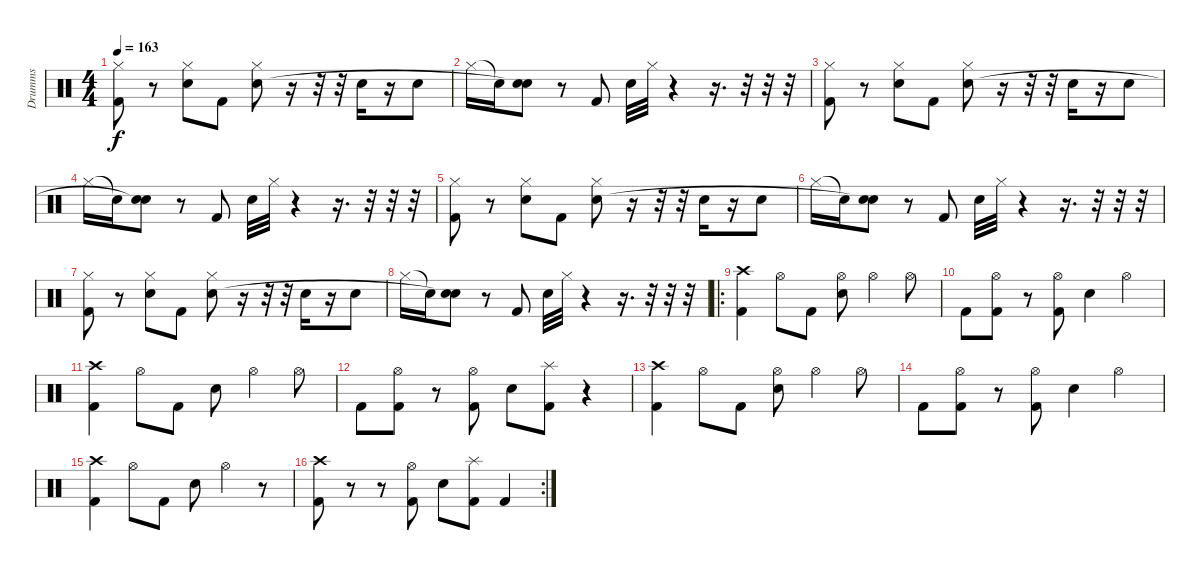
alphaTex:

\track ("Drumms" "Drumms") {instrument percussion}
\staff {score}
\articulation defaults
\ts (4 4)
\tempo 163
\clef neutral
\ks c
("Hi-Hat (closed)" "Kick (hit) 2").8{dy f} r.8 ("Hi-Hat (closed)" "Snare (hit) 2").8 "Kick (hit) 2".8 ("Hi-Hat (closed)" "Snare (hit) 2").8 r.16 r.32 r.32 "Snare (hit) 2".16 r.16 "Snare (hit) 2".8 |
"Hi-Hat (closed)".16 "Snare (hit)"{t}.16 ("Snare (hit) 2" "Snare (hit)"{t}).8 r.8 "Kick (hit) 2".8 "Snare (hit) 2".32 "Hi-Hat (closed)".32 r.4 r.16{d} r.32 r.32 r.32 |
("Hi-Hat (closed)" "Kick (hit) 2").8 r.8 ("Hi-Hat (closed)" "Snare (hit) 2").8 "Kick (hit) 2".8 ("Hi-Hat (closed)" "Snare (hit) 2").8 r.16 r.32 r.32 "Snare (hit) 2".16 r.16 "Snare (hit) 2".8 |
"Hi-Hat (closed)".16 "Snare (hit)"{t}.16 ("Snare (hit) 2" "Snare (hit)"{t}).8 r.8 "Kick (hit) 2".8 "Snare (hit) 2".32 "Hi-Hat (closed)".32 r.4 r.16{d} r.32 r.32 r.32 |
("Hi-Hat (closed)" "Kick (hit) 2").8 r.8 ("Hi-Hat (closed)" "Snare (hit) 2").8 "Kick (hit) 2".8 ("Hi-Hat (closed)" "Snare (hit) 2").8 r.16 r.32 r.32 "Snare (hit) 2".16 r.16 "Snare (hit) 2".8 |
"Hi-Hat (closed)".16 "Snare (hit)"{t}.16 ("Snare (hit) 2" "Snare (hit)"{t}).8 r.8 "Kick (hit) 2".8 "Snare (hit) 2".32 "Hi-Hat (closed)".32 r.4 r.16{d} r.32 r.32 r.32 |
("Hi-Hat (closed)" "Kick (hit) 2").8 r.8 ("Hi-Hat (closed)" "Snare (hit) 2").8 "Kick (hit) 2".8 ("Hi-Hat (closed)" "Snare (hit) 2").8 r.16 r.32 r.32 "Snare (hit) 2".16 r.16 "Snare (hit) 2".8 |
"Hi-Hat (closed)".16 "Snare (hit)"{t}.16 ("Snare (hit) 2" "Snare (hit)"{t}).8 r.8 "Kick (hit) 2".8 "Snare (hit) 2".32 "Hi-Hat (closed)".32 r.4 r.16{d} r.32 r.32 r.32 |
\ro
("Crash high (hit)" "Kick (hit) 2").4 "Hi-Hat (open)".8 "Kick (hit) 2".8 ("Hi-Hat (open)" "Snare (hit) 2").8 "Hi-Hat (open)".4 "Hi-Hat (open)".8 |
"Kick (hit) 2".8 ("Hi-Hat (open)" "Kick (hit) 2").8 r.8 ("Hi-Hat (open)" "Kick (hit) 2").8 "Snare (hit) 2".4 "Hi-Hat (open)".4 |
("Crash high (hit)" "Kick (hit) 2").4 "Hi-Hat (open)".8 "Kick (hit) 2".8 "Snare (hit) 2".8 "Hi-Hat (open)".4 "Hi-Hat (open)".8 |
"Kick (hit) 2".8 ("Hi-Hat (open)" "Kick (hit) 2").8 r.8 ("Hi-Hat (open)" "Kick (hit) 2").8 "Snare (hit) 2".8 ("Splash (hit)" "Kick (hit) 2").8 r.4 |
("Crash high (hit)" "Kick (hit) 2").4 "Hi-Hat (open)".8 "Kick (hit) 2".8 ("Hi-Hat (open)" "Snare (hit) 2").8 "Hi-Hat (open)".4 "Hi-Hat (open)".8 |
"Kick (hit) 2".8 ("Hi-Hat (open)" "Kick (hit) 2").8 r.8 ("Hi-Hat (open)" "Kick (hit) 2").8 "Snare (hit) 2".4 "Hi-Hat (open)".4 |
("Crash high (hit)" "Kick (hit) 2").4 "Hi-Hat (open)".8 "Kick (hit) 2".8 "Snare (hit) 2".8 "Hi-Hat (open)".4 r.8 |
\rc 2
("Crash high (hit)" "Kick (hit) 2").8 r.8 r.8 ("Hi-Hat (open)" "Kick (hit) 2").8 "Snare (hit) 2".8 ("Splash (hit)" "Kick (hit) 2").8 "Kick (hit) 2".4
